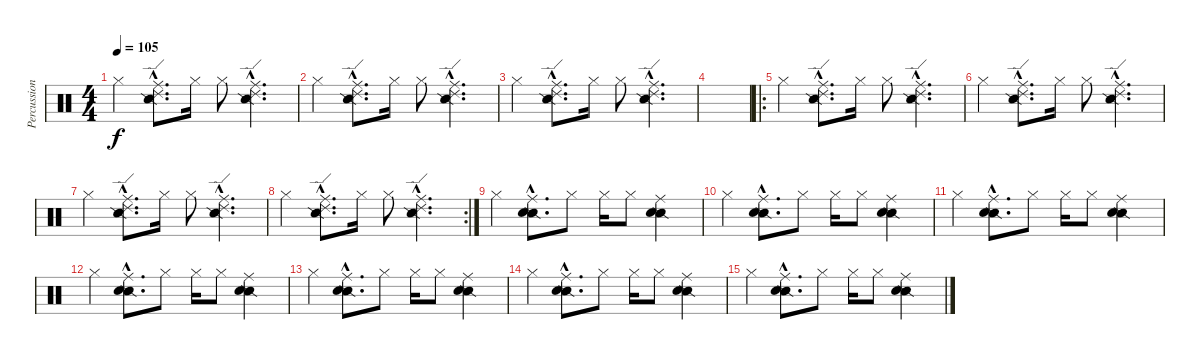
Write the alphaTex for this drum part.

\track ("Percussion" "Percussion") {instrument percussion}
\staff {score}
\articulation defaults
\ts (4 4)
\tempo 105
\clef neutral
\ks c "Hi-Hat (closed)".4{dy f}
("Snare (side stick) 2"{hac} "Ride (middle)"{hac} "Ride (edge) 2"{hac}).8{d} "Hi-Hat (closed)".16 "Hi-Hat (closed)".8 ("Snare (side stick) 2"{hac} "Ride (middle)"{hac} "Ride (edge) 2"{hac}).4{d} |
"Hi-Hat (closed)".4 ("Snare (side stick) 2"{hac} "Ride (middle)"{hac} "Ride (edge) 2"{hac}).8{d} "Hi-Hat (closed)".16 "Hi-Hat (closed)".8 ("Snare (side stick) 2"{hac} "Ride (middle)"{hac} "Ride (edge) 2"{hac}).4{d} |
"Hi-Hat (closed)".4 ("Snare (side stick) 2"{hac} "Ride (middle)"{hac} "Ride (edge) 2"{hac}).8{d} "Hi-Hat (closed)".16 "Hi-Hat (closed)".8 ("Snare (side stick) 2"{hac} "Ride (middle)"{hac} "Ride (edge) 2"{hac}).4{d} |
|
\ro "Hi-Hat (closed)".4
("Snare (side stick) 2"{hac} "Ride (middle)"{hac} "Ride (edge) 2"{hac}).8{d} "Hi-Hat (closed)".16 "Hi-Hat (closed)".8 ("Snare (side stick) 2"{hac} "Ride (middle)"{hac} "Ride (edge) 2"{hac}).4{d} |
"Hi-Hat (closed)".4 ("Snare (side stick) 2"{hac} "Ride (middle)"{hac} "Ride (edge) 2"{hac}).8{d} "Hi-Hat (closed)".16 "Hi-Hat (closed)".8 ("Snare (side stick) 2"{hac} "Ride (middle)"{hac} "Ride (edge) 2"{hac}).4{d} |
"Hi-Hat (closed)".4 ("Snare (side stick) 2"{hac} "Ride (middle)"{hac} "Ride (edge) 2"{hac}).8{d} "Hi-Hat (closed)".16 "Hi-Hat (closed)".8 ("Snare (side stick) 2"{hac} "Ride (middle)"{hac} "Ride (edge) 2"{hac}).4{d} |
\rc 2 "Hi-Hat (closed)".4
("Snare (side stick) 2"{hac} "Ride (middle)"{hac} "Ride (edge) 2"{hac}).8{d} "Hi-Hat (closed)".16 "Hi-Hat (closed)".8 ("Snare (side stick) 2"{hac} "Ride (middle)"{hac} "Ride (edge) 2"{hac}).4{d} |
"Hi-Hat (closed)".4 ("Snare (side stick) 2"{hac} "Ride (middle)"{hac} "Snare (hit) 2"{hac}).8{d} "Hi-Hat (closed)".8 "Hi-Hat (closed)".16 "Hi-Hat (closed)".8 ("Snare (side stick) 2" "Ride (middle)" "Snare (hit) 2").4 |
"Hi-Hat (closed)".4 ("Snare (side stick) 2"{hac} "Ride (middle)"{hac} "Snare (hit) 2"{hac}).8{d} "Hi-Hat (closed)".8 "Hi-Hat (closed)".16 "Hi-Hat (closed)".8 ("Snare (side stick) 2" "Ride (middle)" "Snare (hit) 2").4 |
"Hi-Hat (closed)".4 ("Snare (side stick) 2"{hac} "Ride (middle)"{hac} "Snare (hit) 2"{hac}).8{d} "Hi-Hat (closed)".8 "Hi-Hat (closed)".16 "Hi-Hat (closed)".8 ("Snare (side stick) 2" "Ride (middle)" "Snare (hit) 2").4 |
"Hi-Hat (closed)".4 ("Snare (side stick) 2"{hac} "Ride (middle)"{hac} "Snare (hit) 2"{hac}).8{d} "Hi-Hat (closed)".8 "Hi-Hat (closed)".16 "Hi-Hat (closed)".8 ("Snare (side stick) 2" "Ride (middle)" "Snare (hit) 2").4 |
"Hi-Hat (closed)".4 ("Snare (side stick) 2"{hac} "Ride (middle)"{hac} "Snare (hit) 2"{hac}).8{d} "Hi-Hat (closed)".8 "Hi-Hat (closed)".16 "Hi-Hat (closed)".8 ("Snare (side stick) 2" "Ride (middle)" "Snare (hit) 2").4 |
"Hi-Hat (closed)".4 ("Snare (side stick) 2"{hac} "Ride (middle)"{hac} "Snare (hit) 2"{hac}).8{d} "Hi-Hat (closed)".8 "Hi-Hat (closed)".16 "Hi-Hat (closed)".8 ("Snare (side stick) 2" "Ride (middle)" "Snare (hit) 2").4 |
"Hi-Hat (closed)".4 ("Snare (side stick) 2"{hac} "Ride (middle)"{hac} "Snare (hit) 2"{hac}).8{d} "Hi-Hat (closed)".8 "Hi-Hat (closed)".16 "Hi-Hat (closed)".8 ("Snare (side stick) 2" "Ride (middle)" "Snare (hit) 2").4
